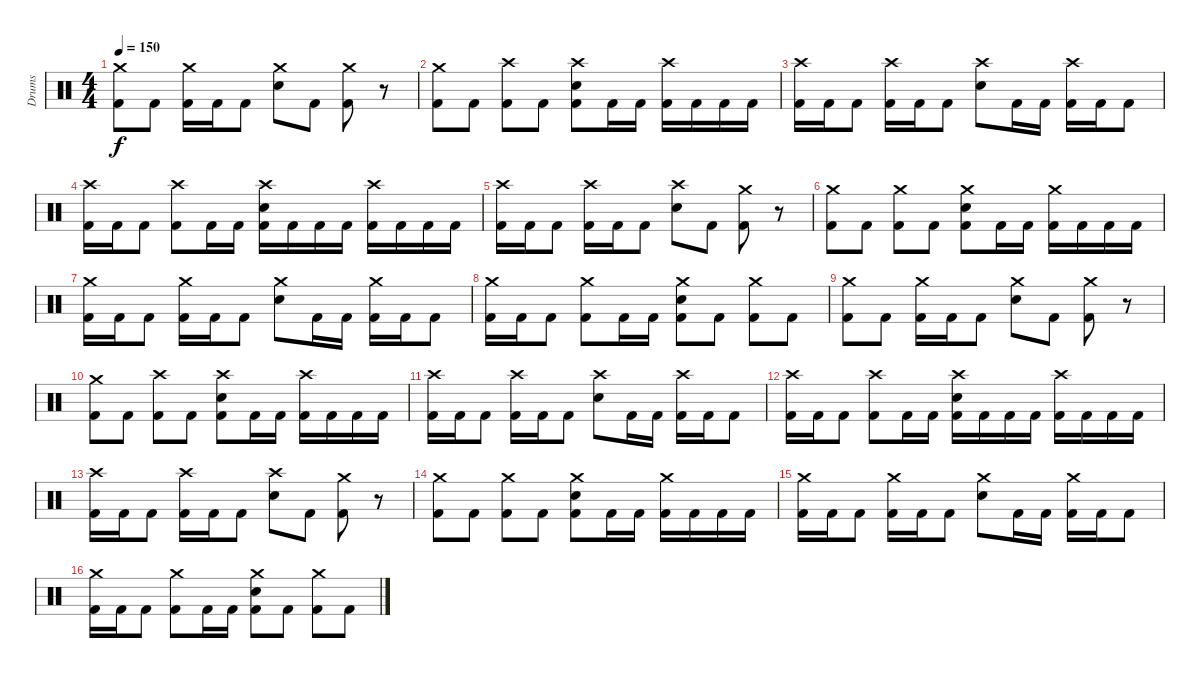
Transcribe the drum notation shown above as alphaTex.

\track ("Drums" "Drums") {instrument percussion}
\staff {score}
\articulation defaults
\ts (4 4)
\tempo 150
\clef neutral
\ks c
("Crash medium (hit)" "Kick (hit) 2").8{dy f} "Kick (hit) 2".8 ("Crash medium (hit)" "Kick (hit) 2").16 "Kick (hit) 2".16 "Kick (hit) 2".8 ("Crash medium (hit)" "Electric Snare (hit)").8 "Kick (hit) 2".8 ("Crash medium (hit)" "Kick (hit) 2").8 r.8 |
("Crash medium (hit)" "Kick (hit) 2").8 "Kick (hit) 2".8 ("Crash high (hit)" "Kick (hit) 2").8 "Kick (hit) 2".8 ("Crash high (hit)" "Electric Snare (hit)" "Kick (hit) 2").8 "Kick (hit) 2".16 "Kick (hit) 2".16 ("Crash high (hit)" "Kick (hit) 2").16 "Kick (hit) 2".16 "Kick (hit) 2".16 "Kick (hit) 2".16 |
("Crash high (hit)" "Kick (hit) 2").16 "Kick (hit) 2".16 "Kick (hit) 2".8 ("Crash high (hit)" "Kick (hit) 2").16 "Kick (hit) 2".16 "Kick (hit) 2".8 ("Crash high (hit)" "Electric Snare (hit)").8 "Kick (hit) 2".16 "Kick (hit) 2".16 ("Crash high (hit)" "Kick (hit) 2").16 "Kick (hit) 2".16 "Kick (hit) 2".8 |
("Crash high (hit)" "Kick (hit) 2").16 "Kick (hit) 2".16 "Kick (hit) 2".8 ("Crash high (hit)" "Kick (hit) 2").8 "Kick (hit) 2".16 "Kick (hit) 2".16 ("Crash high (hit)" "Electric Snare (hit)" "Kick (hit) 2").16 "Kick (hit) 2".16 "Kick (hit) 2".16 "Kick (hit) 2".16 ("Crash high (hit)" "Kick (hit) 2").16 "Kick (hit) 2".16 "Kick (hit) 2".16 "Kick (hit) 2".16 |
("Crash high (hit)" "Kick (hit) 2").16 "Kick (hit) 2".16 "Kick (hit) 2".8 ("Crash high (hit)" "Kick (hit) 2").16 "Kick (hit) 2".16 "Kick (hit) 2".8 ("Crash high (hit)" "Electric Snare (hit)").8 "Kick (hit) 2".8 ("Crash medium (hit)" "Kick (hit) 2").8 r.8 |
("Crash medium (hit)" "Kick (hit) 2").8 "Kick (hit) 2".8 ("Crash medium (hit)" "Kick (hit) 2").8 "Kick (hit) 2".8 ("Crash medium (hit)" "Electric Snare (hit)" "Kick (hit) 2").8 "Kick (hit) 2".16 "Kick (hit) 2".16 ("Crash medium (hit)" "Kick (hit) 2").16 "Kick (hit) 2".16 "Kick (hit) 2".16 "Kick (hit) 2".16 |
("Crash medium (hit)" "Kick (hit) 2").16 "Kick (hit) 2".16 "Kick (hit) 2".8 ("Crash medium (hit)" "Kick (hit) 2").16 "Kick (hit) 2".16 "Kick (hit) 2".8 ("Crash medium (hit)" "Electric Snare (hit)").8 "Kick (hit) 2".16 "Kick (hit) 2".16 ("Crash medium (hit)" "Kick (hit) 2").16 "Kick (hit) 2".16 "Kick (hit) 2".8 |
("Crash medium (hit)" "Kick (hit) 2").16 "Kick (hit) 2".16 "Kick (hit) 2".8 ("Crash medium (hit)" "Kick (hit) 2").8 "Kick (hit) 2".16 "Kick (hit) 2".16 ("Crash medium (hit)" "Electric Snare (hit)" "Kick (hit) 2").8 "Kick (hit) 2".8 ("Crash medium (hit)" "Kick (hit) 2").8 "Kick (hit) 2".8 |
("Crash medium (hit)" "Kick (hit) 2").8 "Kick (hit) 2".8 ("Crash medium (hit)" "Kick (hit) 2").16 "Kick (hit) 2".16 "Kick (hit) 2".8 ("Crash medium (hit)" "Electric Snare (hit)").8 "Kick (hit) 2".8 ("Crash medium (hit)" "Kick (hit) 2").8 r.8 |
("Crash medium (hit)" "Kick (hit) 2").8 "Kick (hit) 2".8 ("Crash high (hit)" "Kick (hit) 2").8 "Kick (hit) 2".8 ("Crash high (hit)" "Electric Snare (hit)" "Kick (hit) 2").8 "Kick (hit) 2".16 "Kick (hit) 2".16 ("Crash high (hit)" "Kick (hit) 2").16 "Kick (hit) 2".16 "Kick (hit) 2".16 "Kick (hit) 2".16 |
("Crash high (hit)" "Kick (hit) 2").16 "Kick (hit) 2".16 "Kick (hit) 2".8 ("Crash high (hit)" "Kick (hit) 2").16 "Kick (hit) 2".16 "Kick (hit) 2".8 ("Crash high (hit)" "Electric Snare (hit)").8 "Kick (hit) 2".16 "Kick (hit) 2".16 ("Crash high (hit)" "Kick (hit) 2").16 "Kick (hit) 2".16 "Kick (hit) 2".8 |
("Crash high (hit)" "Kick (hit) 2").16 "Kick (hit) 2".16 "Kick (hit) 2".8 ("Crash high (hit)" "Kick (hit) 2").8 "Kick (hit) 2".16 "Kick (hit) 2".16 ("Crash high (hit)" "Electric Snare (hit)" "Kick (hit) 2").16 "Kick (hit) 2".16 "Kick (hit) 2".16 "Kick (hit) 2".16 ("Crash high (hit)" "Kick (hit) 2").16 "Kick (hit) 2".16 "Kick (hit) 2".16 "Kick (hit) 2".16 |
("Crash high (hit)" "Kick (hit) 2").16 "Kick (hit) 2".16 "Kick (hit) 2".8 ("Crash high (hit)" "Kick (hit) 2").16 "Kick (hit) 2".16 "Kick (hit) 2".8 ("Crash high (hit)" "Electric Snare (hit)").8 "Kick (hit) 2".8 ("Crash medium (hit)" "Kick (hit) 2").8 r.8 |
("Crash medium (hit)" "Kick (hit) 2").8 "Kick (hit) 2".8 ("Crash medium (hit)" "Kick (hit) 2").8 "Kick (hit) 2".8 ("Crash medium (hit)" "Electric Snare (hit)" "Kick (hit) 2").8 "Kick (hit) 2".16 "Kick (hit) 2".16 ("Crash medium (hit)" "Kick (hit) 2").16 "Kick (hit) 2".16 "Kick (hit) 2".16 "Kick (hit) 2".16 |
("Crash medium (hit)" "Kick (hit) 2").16 "Kick (hit) 2".16 "Kick (hit) 2".8 ("Crash medium (hit)" "Kick (hit) 2").16 "Kick (hit) 2".16 "Kick (hit) 2".8 ("Crash medium (hit)" "Electric Snare (hit)").8 "Kick (hit) 2".16 "Kick (hit) 2".16 ("Crash medium (hit)" "Kick (hit) 2").16 "Kick (hit) 2".16 "Kick (hit) 2".8 |
("Crash medium (hit)" "Kick (hit) 2").16 "Kick (hit) 2".16 "Kick (hit) 2".8 ("Crash medium (hit)" "Kick (hit) 2").8 "Kick (hit) 2".16 "Kick (hit) 2".16 ("Crash medium (hit)" "Electric Snare (hit)" "Kick (hit) 2").8 "Kick (hit) 2".8 ("Crash medium (hit)" "Kick (hit) 2").8 "Kick (hit) 2".8
